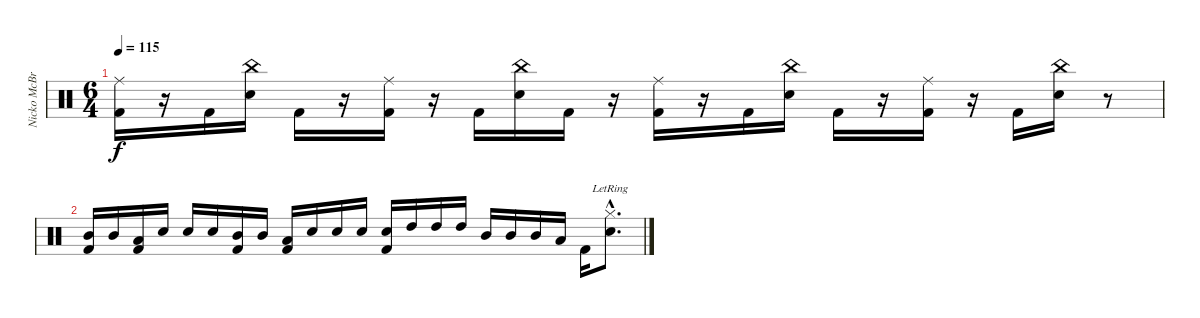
\track ("Nicko McBrain" "Nicko McBr") {instrument percussion}
\staff {score}
\articulation defaults
\ts (6 4)
\tempo 115
\clef neutral
\ks c
("Ride (middle)" "Kick (hit) 2").16{dy f} r.16 "Kick (hit) 2".16 ("China (hit)" "Electric Snare (hit)").16 "Kick (hit) 2".16 r.16 ("Ride (middle)" "Kick (hit) 2").16 r.16 "Kick (hit) 2".16 ("China (hit)" "Electric Snare (hit)").16 "Kick (hit) 2".16 r.16 ("Ride (middle)" "Kick (hit) 2").16 r.16 "Kick (hit) 2".16 ("China (hit)" "Electric Snare (hit)").16 "Kick (hit) 2".16 r.16 ("Ride (middle)" "Kick (hit) 2").16 r.16 "Kick (hit) 2".16 ("China (hit)" "Electric Snare (hit)").16 r.8 |
("Mid Tom (hit)" "Kick (hit) 2").16 "Mid Tom (hit)".16 ("Low Tom (hit)" "Kick (hit) 2").16 "Electric Snare (hit)".16 "Electric Snare (hit)".16 "Electric Snare (hit)".16 ("Mid Tom (hit)" "Kick (hit) 2").16 "Mid Tom (hit)".16 ("Low Tom (hit)" "Kick (hit) 2").16 "Electric Snare (hit)".16 "Electric Snare (hit)".16 "Electric Snare (hit)".16 ("Electric Snare (hit)" "Kick (hit) 2").16 "High Tom (hit)".16 "High Tom (hit)".16 "High Tom (hit)".16 "Mid Tom (hit)".16 "Mid Tom (hit)".16 "Mid Tom (hit)".16 "Low Tom (hit)".16 "Kick (hit) 2".16 ("Hi-Hat (closed)"{hac lr} "Electric Snare (hit)"{hac}).8{d}
